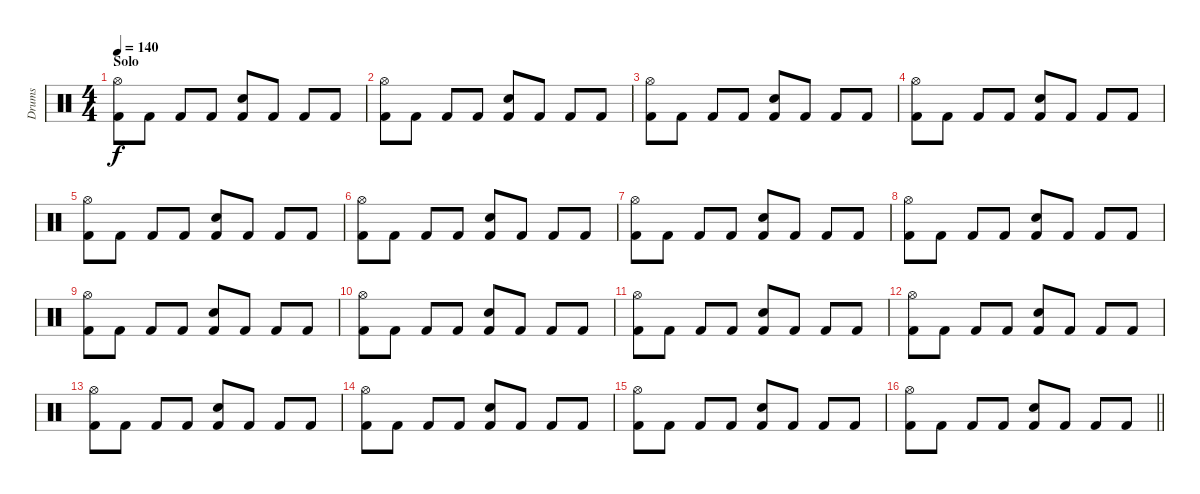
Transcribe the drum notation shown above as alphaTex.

\track ("Drums" "Drums") {instrument percussion}
\staff {score}
\articulation defaults
\ts (4 4)
\section ("" "Solo")
\tempo 140
\clef neutral
\ks c
("Hi-Hat (open)" "Kick (hit) 2").8{dy f} "Kick (hit) 2".8 "Kick (hit) 2".8 "Kick (hit) 2".8 ("Snare (hit) 2" "Kick (hit) 2").8 "Kick (hit) 2".8 "Kick (hit) 2".8 "Kick (hit) 2".8 |
("Hi-Hat (open)" "Kick (hit) 2").8 "Kick (hit) 2".8 "Kick (hit) 2".8 "Kick (hit) 2".8 ("Snare (hit) 2" "Kick (hit) 2").8 "Kick (hit) 2".8 "Kick (hit) 2".8 "Kick (hit) 2".8 |
("Hi-Hat (open)" "Kick (hit) 2").8 "Kick (hit) 2".8 "Kick (hit) 2".8 "Kick (hit) 2".8 ("Snare (hit) 2" "Kick (hit) 2").8 "Kick (hit) 2".8 "Kick (hit) 2".8 "Kick (hit) 2".8 |
("Hi-Hat (open)" "Kick (hit) 2").8 "Kick (hit) 2".8 "Kick (hit) 2".8 "Kick (hit) 2".8 ("Snare (hit) 2" "Kick (hit) 2").8 "Kick (hit) 2".8 "Kick (hit) 2".8 "Kick (hit) 2".8 |
("Hi-Hat (open)" "Kick (hit) 2").8 "Kick (hit) 2".8 "Kick (hit) 2".8 "Kick (hit) 2".8 ("Snare (hit) 2" "Kick (hit) 2").8 "Kick (hit) 2".8 "Kick (hit) 2".8 "Kick (hit) 2".8 |
("Hi-Hat (open)" "Kick (hit) 2").8 "Kick (hit) 2".8 "Kick (hit) 2".8 "Kick (hit) 2".8 ("Snare (hit) 2" "Kick (hit) 2").8 "Kick (hit) 2".8 "Kick (hit) 2".8 "Kick (hit) 2".8 |
("Hi-Hat (open)" "Kick (hit) 2").8 "Kick (hit) 2".8 "Kick (hit) 2".8 "Kick (hit) 2".8 ("Snare (hit) 2" "Kick (hit) 2").8 "Kick (hit) 2".8 "Kick (hit) 2".8 "Kick (hit) 2".8 |
("Hi-Hat (open)" "Kick (hit) 2").8 "Kick (hit) 2".8 "Kick (hit) 2".8 "Kick (hit) 2".8 ("Snare (hit) 2" "Kick (hit) 2").8 "Kick (hit) 2".8 "Kick (hit) 2".8 "Kick (hit) 2".8 |
("Hi-Hat (open)" "Kick (hit) 2").8 "Kick (hit) 2".8 "Kick (hit) 2".8 "Kick (hit) 2".8 ("Snare (hit) 2" "Kick (hit) 2").8 "Kick (hit) 2".8 "Kick (hit) 2".8 "Kick (hit) 2".8 |
("Hi-Hat (open)" "Kick (hit) 2").8 "Kick (hit) 2".8 "Kick (hit) 2".8 "Kick (hit) 2".8 ("Snare (hit) 2" "Kick (hit) 2").8 "Kick (hit) 2".8 "Kick (hit) 2".8 "Kick (hit) 2".8 |
("Hi-Hat (open)" "Kick (hit) 2").8 "Kick (hit) 2".8 "Kick (hit) 2".8 "Kick (hit) 2".8 ("Snare (hit) 2" "Kick (hit) 2").8 "Kick (hit) 2".8 "Kick (hit) 2".8 "Kick (hit) 2".8 |
("Hi-Hat (open)" "Kick (hit) 2").8 "Kick (hit) 2".8 "Kick (hit) 2".8 "Kick (hit) 2".8 ("Snare (hit) 2" "Kick (hit) 2").8 "Kick (hit) 2".8 "Kick (hit) 2".8 "Kick (hit) 2".8 |
("Hi-Hat (open)" "Kick (hit) 2").8 "Kick (hit) 2".8 "Kick (hit) 2".8 "Kick (hit) 2".8 ("Snare (hit) 2" "Kick (hit) 2").8 "Kick (hit) 2".8 "Kick (hit) 2".8 "Kick (hit) 2".8 |
("Hi-Hat (open)" "Kick (hit) 2").8 "Kick (hit) 2".8 "Kick (hit) 2".8 "Kick (hit) 2".8 ("Snare (hit) 2" "Kick (hit) 2").8 "Kick (hit) 2".8 "Kick (hit) 2".8 "Kick (hit) 2".8 |
("Hi-Hat (open)" "Kick (hit) 2").8 "Kick (hit) 2".8 "Kick (hit) 2".8 "Kick (hit) 2".8 ("Snare (hit) 2" "Kick (hit) 2").8 "Kick (hit) 2".8 "Kick (hit) 2".8 "Kick (hit) 2".8 |
\barLineRight lightlight
("Hi-Hat (open)" "Kick (hit) 2").8 "Kick (hit) 2".8 "Kick (hit) 2".8 "Kick (hit) 2".8 ("Snare (hit) 2" "Kick (hit) 2").8 "Kick (hit) 2".8 "Kick (hit) 2".8 "Kick (hit) 2".8
